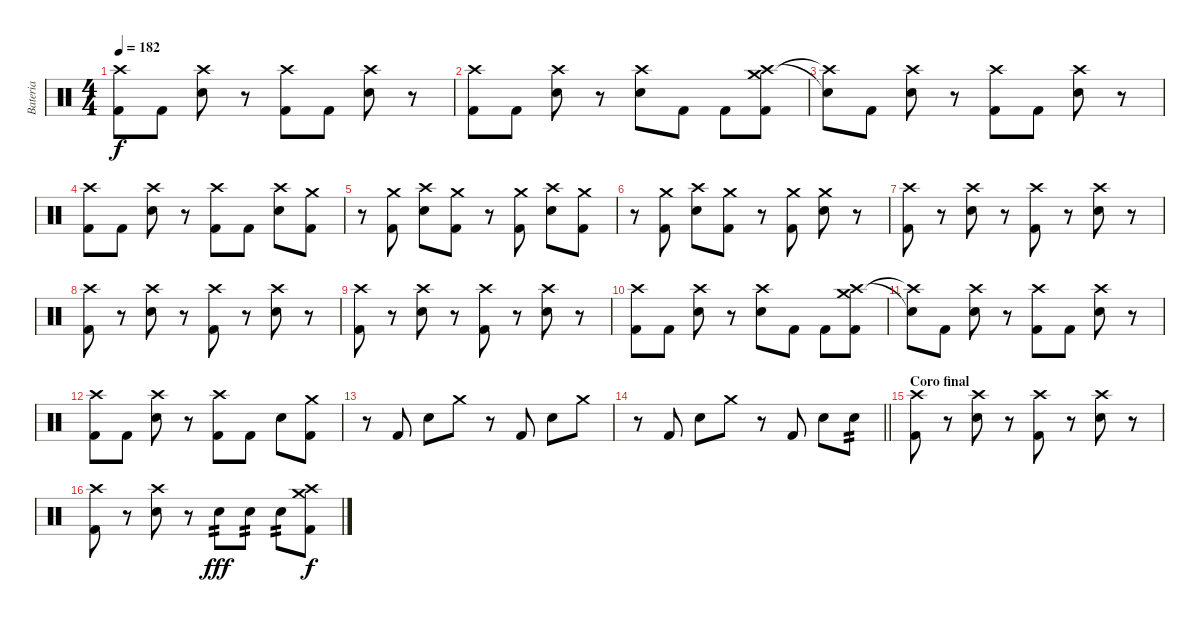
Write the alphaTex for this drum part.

\track ("Bateria" "Bateria") {instrument percussion}
\staff {score}
\articulation defaults
\ts (4 4)
\tempo 182
\clef neutral
\ks c
("Crash high (hit)" "Kick (hit) 2").8{dy f} "Kick (hit) 2".8 ("Crash high (hit)" "Electric Snare (hit)").8 r.8 ("Crash high (hit)" "Kick (hit) 2").8 "Kick (hit) 2".8 ("Crash high (hit)" "Electric Snare (hit)").8 r.8 |
("Crash high (hit)" "Kick (hit) 2").8 "Kick (hit) 2".8 ("Crash high (hit)" "Electric Snare (hit)").8 r.8 ("Crash high (hit)" "Electric Snare (hit)").8 "Kick (hit) 2".8 "Kick (hit) 2".8 ("Crash high (hit)" "Crash medium (hit)" "Kick (hit) 2").8 |
("Snare (hit)"{t} "Crash high (hit)"{t}).8 "Kick (hit) 2".8 ("Crash high (hit)" "Electric Snare (hit)").8 r.8 ("Crash high (hit)" "Kick (hit) 2").8 "Kick (hit) 2".8 ("Crash high (hit)" "Electric Snare (hit)").8 r.8 |
("Crash high (hit)" "Kick (hit) 2").8 "Kick (hit) 2".8 ("Crash high (hit)" "Electric Snare (hit)").8 r.8 ("Crash high (hit)" "Kick (hit) 2").8 "Kick (hit) 2".8 ("Crash high (hit)" "Electric Snare (hit)").8 ("Crash medium (hit)" "Kick (hit) 2").8 |
r.8 ("Crash medium (hit)" "Kick (hit) 2").8 ("Crash high (hit)" "Electric Snare (hit)").8 ("Crash medium (hit)" "Kick (hit) 2").8 r.8 ("Crash medium (hit)" "Kick (hit) 2").8 ("Crash high (hit)" "Electric Snare (hit)").8 ("Crash medium (hit)" "Kick (hit) 2").8 |
r.8 ("Crash medium (hit)" "Kick (hit) 2").8 ("Crash high (hit)" "Electric Snare (hit)").8 ("Crash medium (hit)" "Kick (hit) 2").8 r.8 ("Crash medium (hit)" "Kick (hit) 2").8 ("Crash medium (hit)" "Electric Snare (hit)").8 r.8 |
("Crash high (hit)" "Kick (hit) 2").8 r.8 ("Crash high (hit)" "Electric Snare (hit)").8 r.8 ("Crash high (hit)" "Kick (hit) 2").8 r.8 ("Crash high (hit)" "Electric Snare (hit)").8 r.8 |
("Crash high (hit)" "Kick (hit) 2").8 r.8 ("Crash high (hit)" "Electric Snare (hit)").8 r.8 ("Crash high (hit)" "Kick (hit) 2").8 r.8 ("Crash high (hit)" "Electric Snare (hit)").8 r.8 |
("Crash high (hit)" "Kick (hit) 2").8 r.8 ("Crash high (hit)" "Electric Snare (hit)").8 r.8 ("Crash high (hit)" "Kick (hit) 2").8 r.8 ("Crash high (hit)" "Electric Snare (hit)").8 r.8 |
("Crash high (hit)" "Kick (hit) 2").8 "Kick (hit) 2".8 ("Crash high (hit)" "Electric Snare (hit)").8 r.8 ("Crash high (hit)" "Electric Snare (hit)").8 "Kick (hit) 2".8 "Kick (hit) 2".8 ("Crash high (hit)" "Crash medium (hit)" "Kick (hit) 2").8 |
("Snare (hit)"{t} "Crash high (hit)"{t}).8 "Kick (hit) 2".8 ("Crash high (hit)" "Electric Snare (hit)").8 r.8 ("Crash high (hit)" "Kick (hit) 2").8 "Kick (hit) 2".8 ("Crash high (hit)" "Electric Snare (hit)").8 r.8 |
("Crash high (hit)" "Kick (hit) 2").8 "Kick (hit) 2".8 ("Crash high (hit)" "Electric Snare (hit)").8 r.8 ("Crash high (hit)" "Kick (hit) 2").8 "Kick (hit) 2".8 "Electric Snare (hit)".8 ("Crash medium (hit)" "Kick (hit) 2").8 |
r.8 "Kick (hit) 2".8 "Electric Snare (hit)".8 "Crash medium (hit)".8 r.8 "Kick (hit) 2".8 "Electric Snare (hit)".8 "Crash medium (hit)".8 |
\barLineRight lightlight
r.8 "Kick (hit) 2".8 "Electric Snare (hit)".8 "Crash medium (hit)".8 r.8 "Kick (hit) 2".8 "Electric Snare (hit)".8 "Electric Snare (hit)".8{tp 2} |
\section ("" "Coro final")
("Crash high (hit)" "Kick (hit) 2").8 r.8 ("Crash high (hit)" "Electric Snare (hit)").8 r.8 ("Crash high (hit)" "Kick (hit) 2").8 r.8 ("Crash high (hit)" "Electric Snare (hit)").8 r.8 |
("Crash high (hit)" "Kick (hit) 2").8 r.8 ("Crash high (hit)" "Electric Snare (hit)").8 r.8 "Electric Snare (hit)".8{tp 2 dy fff} "Electric Snare (hit)".8{tp 2} "Electric Snare (hit)".8{tp 2} ("Crash high (hit)" "Crash medium (hit)" "Kick (hit) 2").8{dy f}
